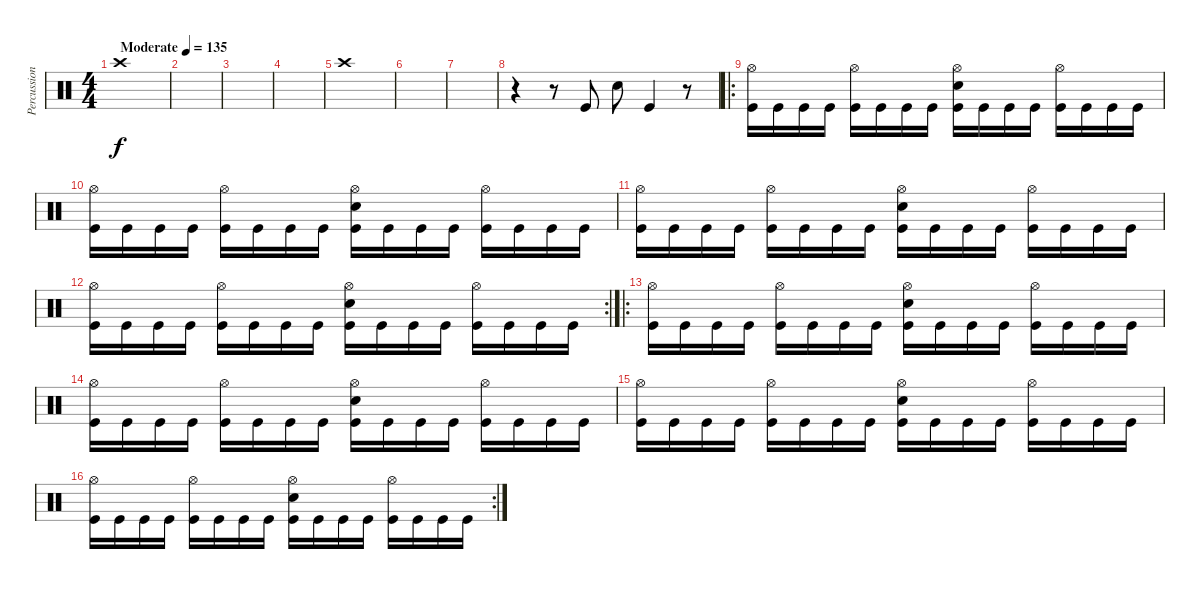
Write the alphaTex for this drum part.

\track ("Percussion" "Percussion") {instrument percussion}
\staff {score}
\articulation defaults
\ts (4 4)
\tempo (135 "Moderate")
\clef neutral
\ks c "Crash high (hit)".1{dy f}
|
|
|
|
"Crash high (hit)".1 |
|
|
r.4 r.8 "Kick (hit)".8 "Snare (hit) 2".8 "Kick (hit)".4 r.8 |
\ro
("Kick (hit)" "Hi-Hat (open)").16 "Kick (hit)".16 "Kick (hit)".16 "Kick (hit)".16 ("Kick (hit)" "Hi-Hat (open)").16 "Kick (hit)".16 "Kick (hit)".16 "Kick (hit)".16 ("Snare (hit) 2" "Kick (hit)" "Hi-Hat (open)").16 "Kick (hit)".16 "Kick (hit)".16 "Kick (hit)".16 ("Kick (hit)" "Hi-Hat (open)").16 "Kick (hit)".16 "Kick (hit)".16 "Kick (hit)".16 |
("Kick (hit)" "Hi-Hat (open)").16 "Kick (hit)".16 "Kick (hit)".16 "Kick (hit)".16 ("Kick (hit)" "Hi-Hat (open)").16 "Kick (hit)".16 "Kick (hit)".16 "Kick (hit)".16 ("Snare (hit) 2" "Kick (hit)" "Hi-Hat (open)").16 "Kick (hit)".16 "Kick (hit)".16 "Kick (hit)".16 ("Kick (hit)" "Hi-Hat (open)").16 "Kick (hit)".16 "Kick (hit)".16 "Kick (hit)".16 |
("Kick (hit)" "Hi-Hat (open)").16 "Kick (hit)".16 "Kick (hit)".16 "Kick (hit)".16 ("Kick (hit)" "Hi-Hat (open)").16 "Kick (hit)".16 "Kick (hit)".16 "Kick (hit)".16 ("Snare (hit) 2" "Kick (hit)" "Hi-Hat (open)").16 "Kick (hit)".16 "Kick (hit)".16 "Kick (hit)".16 ("Kick (hit)" "Hi-Hat (open)").16 "Kick (hit)".16 "Kick (hit)".16 "Kick (hit)".16 |
\rc 2
("Kick (hit)" "Hi-Hat (open)").16 "Kick (hit)".16 "Kick (hit)".16 "Kick (hit)".16 ("Kick (hit)" "Hi-Hat (open)").16 "Kick (hit)".16 "Kick (hit)".16 "Kick (hit)".16 ("Snare (hit) 2" "Kick (hit)" "Hi-Hat (open)").16 "Kick (hit)".16 "Kick (hit)".16 "Kick (hit)".16 ("Kick (hit)" "Hi-Hat (open)").16 "Kick (hit)".16 "Kick (hit)".16 "Kick (hit)".16 |
\ro
("Kick (hit)" "Hi-Hat (open)").16 "Kick (hit)".16 "Kick (hit)".16 "Kick (hit)".16 ("Kick (hit)" "Hi-Hat (open)").16 "Kick (hit)".16 "Kick (hit)".16 "Kick (hit)".16 ("Snare (hit) 2" "Kick (hit)" "Hi-Hat (open)").16 "Kick (hit)".16 "Kick (hit)".16 "Kick (hit)".16 ("Kick (hit)" "Hi-Hat (open)").16 "Kick (hit)".16 "Kick (hit)".16 "Kick (hit)".16 |
("Kick (hit)" "Hi-Hat (open)").16 "Kick (hit)".16 "Kick (hit)".16 "Kick (hit)".16 ("Kick (hit)" "Hi-Hat (open)").16 "Kick (hit)".16 "Kick (hit)".16 "Kick (hit)".16 ("Snare (hit) 2" "Kick (hit)" "Hi-Hat (open)").16 "Kick (hit)".16 "Kick (hit)".16 "Kick (hit)".16 ("Kick (hit)" "Hi-Hat (open)").16 "Kick (hit)".16 "Kick (hit)".16 "Kick (hit)".16 |
("Kick (hit)" "Hi-Hat (open)").16 "Kick (hit)".16 "Kick (hit)".16 "Kick (hit)".16 ("Kick (hit)" "Hi-Hat (open)").16 "Kick (hit)".16 "Kick (hit)".16 "Kick (hit)".16 ("Snare (hit) 2" "Kick (hit)" "Hi-Hat (open)").16 "Kick (hit)".16 "Kick (hit)".16 "Kick (hit)".16 ("Kick (hit)" "Hi-Hat (open)").16 "Kick (hit)".16 "Kick (hit)".16 "Kick (hit)".16 |
\rc 2
("Kick (hit)" "Hi-Hat (open)").16 "Kick (hit)".16 "Kick (hit)".16 "Kick (hit)".16 ("Kick (hit)" "Hi-Hat (open)").16 "Kick (hit)".16 "Kick (hit)".16 "Kick (hit)".16 ("Snare (hit) 2" "Kick (hit)" "Hi-Hat (open)").16 "Kick (hit)".16 "Kick (hit)".16 "Kick (hit)".16 ("Kick (hit)" "Hi-Hat (open)").16 "Kick (hit)".16 "Kick (hit)".16 "Kick (hit)".16
